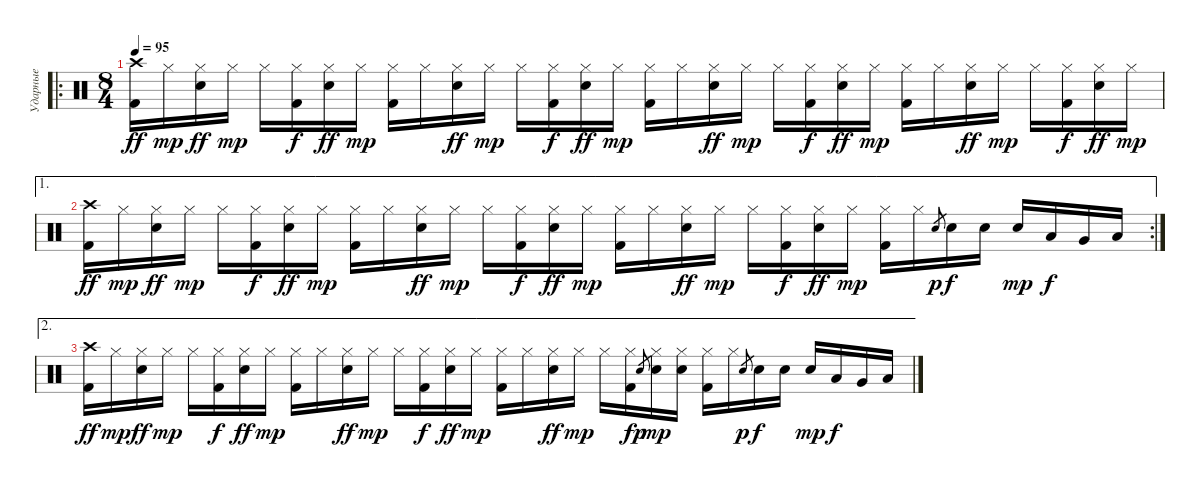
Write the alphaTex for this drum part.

\track ("Ударные" "Ударные") {instrument percussion}
\staff {score}
\articulation defaults
\ro
\ts (8 4)
\tempo 95
\clef neutral
\ks c
("Crash high (hit)" "Kick (hit) 2").16{dy ff} "Hi-Hat (closed)".16{dy mp} ("Hi-Hat (closed)" "Electric Snare (hit)").16{dy ff} "Hi-Hat (closed)".16{dy mp} "Hi-Hat (closed)".16 ("Hi-Hat (closed)" "Kick (hit) 2").16{dy f} ("Hi-Hat (closed)" "Electric Snare (hit)").16{dy ff} "Hi-Hat (closed)".16{dy mp} ("Hi-Hat (closed)" "Kick (hit) 2").16 "Hi-Hat (closed)".16 ("Hi-Hat (closed)" "Electric Snare (hit)").16{dy ff} "Hi-Hat (closed)".16{dy mp} "Hi-Hat (closed)".16 ("Hi-Hat (closed)" "Kick (hit) 2").16{dy f} ("Hi-Hat (closed)" "Electric Snare (hit)").16{dy ff} "Hi-Hat (closed)".16{dy mp} ("Hi-Hat (closed)" "Kick (hit) 2").16 "Hi-Hat (closed)".16 ("Hi-Hat (closed)" "Electric Snare (hit)").16{dy ff} "Hi-Hat (closed)".16{dy mp} "Hi-Hat (closed)".16 ("Hi-Hat (closed)" "Kick (hit) 2").16{dy f} ("Hi-Hat (closed)" "Electric Snare (hit)").16{dy ff} "Hi-Hat (closed)".16{dy mp} ("Hi-Hat (closed)" "Kick (hit) 2").16 "Hi-Hat (closed)".16 ("Hi-Hat (closed)" "Electric Snare (hit)").16{dy ff} "Hi-Hat (closed)".16{dy mp} "Hi-Hat (closed)".16 ("Hi-Hat (closed)" "Kick (hit) 2").16{dy f} ("Hi-Hat (closed)" "Electric Snare (hit)").16{dy ff} "Hi-Hat (closed)".16{dy mp} |
\ae 1
\rc 2
("Crash high (hit)" "Kick (hit) 2").16{dy ff} "Hi-Hat (closed)".16{dy mp} ("Hi-Hat (closed)" "Electric Snare (hit)").16{dy ff} "Hi-Hat (closed)".16{dy mp} "Hi-Hat (closed)".16 ("Hi-Hat (closed)" "Kick (hit) 2").16{dy f} ("Hi-Hat (closed)" "Electric Snare (hit)").16{dy ff} "Hi-Hat (closed)".16{dy mp} ("Hi-Hat (closed)" "Kick (hit) 2").16 "Hi-Hat (closed)".16 ("Hi-Hat (closed)" "Electric Snare (hit)").16{dy ff} "Hi-Hat (closed)".16{dy mp} "Hi-Hat (closed)".16 ("Hi-Hat (closed)" "Kick (hit) 2").16{dy f} ("Hi-Hat (closed)" "Electric Snare (hit)").16{dy ff} "Hi-Hat (closed)".16{dy mp} ("Hi-Hat (closed)" "Kick (hit) 2").16 "Hi-Hat (closed)".16 ("Hi-Hat (closed)" "Electric Snare (hit)").16{dy ff} "Hi-Hat (closed)".16{dy mp} "Hi-Hat (closed)".16 ("Hi-Hat (closed)" "Kick (hit) 2").16{dy f} ("Hi-Hat (closed)" "Electric Snare (hit)").16{dy ff} "Hi-Hat (closed)".16{dy mp} ("Hi-Hat (closed)" "Kick (hit) 2").16 "Hi-Hat (closed)".16 "Electric Snare (hit)".8{gr dy p} "Electric Snare (hit)".16{dy f} "Electric Snare (hit)".16 "Electric Snare (hit)".16{dy mp} "Low Tom (hit)".16{dy f} "Very Low Tom (hit)".16 "Low Floor Tom (hit)".16 |
\ae 2
("Crash high (hit)" "Kick (hit) 2").16{dy ff} "Hi-Hat (closed)".16{dy mp} ("Hi-Hat (closed)" "Electric Snare (hit)").16{dy ff} "Hi-Hat (closed)".16{dy mp} "Hi-Hat (closed)".16 ("Hi-Hat (closed)" "Kick (hit) 2").16{dy f} ("Hi-Hat (closed)" "Electric Snare (hit)").16{dy ff} "Hi-Hat (closed)".16{dy mp} ("Hi-Hat (closed)" "Kick (hit) 2").16 "Hi-Hat (closed)".16 ("Hi-Hat (closed)" "Electric Snare (hit)").16{dy ff} "Hi-Hat (closed)".16{dy mp} "Hi-Hat (closed)".16 ("Hi-Hat (closed)" "Kick (hit) 2").16{dy f} ("Hi-Hat (closed)" "Electric Snare (hit)").16{dy ff} "Hi-Hat (closed)".16{dy mp} ("Hi-Hat (closed)" "Kick (hit) 2").16 "Hi-Hat (closed)".16 ("Hi-Hat (closed)" "Electric Snare (hit)").16{dy ff} "Hi-Hat (closed)".16{dy mp} "Hi-Hat (closed)".16 ("Hi-Hat (closed)" "Kick (hit) 2").16{dy f} "Electric Snare (hit)".8{gr dy p} ("Hi-Hat (closed)" "Electric Snare (hit)").16{dy mp} ("Hi-Hat (closed)" "Electric Snare (hit)").16 ("Hi-Hat (closed)" "Kick (hit) 2").16 "Hi-Hat (closed)".16 "Electric Snare (hit)".8{gr dy p} "Electric Snare (hit)".16{dy f} "Electric Snare (hit)".16 "Electric Snare (hit)".16{dy mp} "Low Tom (hit)".16{dy f} "Very Low Tom (hit)".16 "Low Floor Tom (hit)".16
